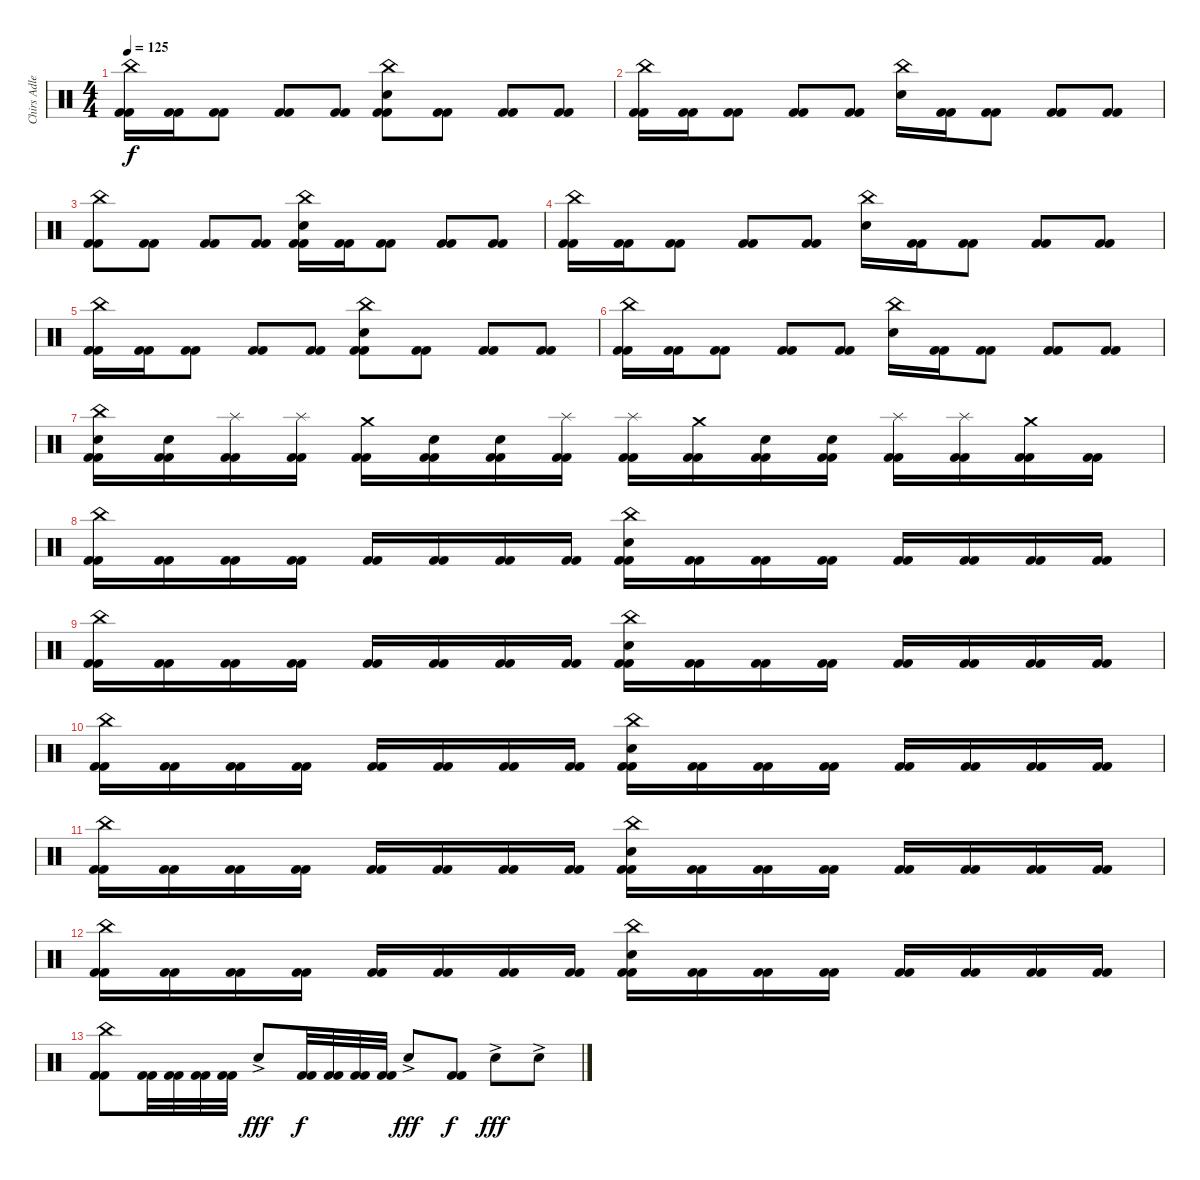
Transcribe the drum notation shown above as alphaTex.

\track ("Chirs Adler" "Chirs Adle") {instrument percussion}
\staff {score}
\articulation defaults
\ts (4 4)
\tempo 125
\clef neutral
\ks c
("China (hit)" "Kick (hit) 2" "Kick (hit) 2").16{dy f} ("Kick (hit) 2" "Kick (hit) 2").16 ("Kick (hit) 2" "Kick (hit) 2").8 ("Kick (hit) 2" "Kick (hit) 2").8 ("Kick (hit) 2" "Kick (hit) 2").8 ("China (hit)" "Electric Snare (hit)" "Kick (hit) 2" "Kick (hit) 2").8 ("Kick (hit) 2" "Kick (hit) 2").8 ("Kick (hit) 2" "Kick (hit) 2").8 ("Kick (hit) 2" "Kick (hit) 2").8 |
("China (hit)" "Kick (hit) 2" "Kick (hit) 2").16 ("Kick (hit) 2" "Kick (hit) 2").16 ("Kick (hit) 2" "Kick (hit) 2").8 ("Kick (hit) 2" "Kick (hit) 2").8 ("Kick (hit) 2" "Kick (hit) 2").8 ("China (hit)" "Electric Snare (hit)").16 ("Kick (hit) 2" "Kick (hit) 2").16 ("Kick (hit) 2" "Kick (hit) 2").8 ("Kick (hit) 2" "Kick (hit) 2").8 ("Kick (hit) 2" "Kick (hit) 2").8 |
("China (hit)" "Kick (hit) 2" "Kick (hit) 2").8 ("Kick (hit) 2" "Kick (hit) 2").8 ("Kick (hit) 2" "Kick (hit) 2").8 ("Kick (hit) 2" "Kick (hit) 2").8 ("China (hit)" "Electric Snare (hit)" "Kick (hit) 2" "Kick (hit) 2").16 ("Kick (hit) 2" "Kick (hit) 2").16 ("Kick (hit) 2" "Kick (hit) 2").8 ("Kick (hit) 2" "Kick (hit) 2").8 ("Kick (hit) 2" "Kick (hit) 2").8 |
("China (hit)" "Kick (hit) 2" "Kick (hit) 2").16 ("Kick (hit) 2" "Kick (hit) 2").16 ("Kick (hit) 2" "Kick (hit) 2").8 ("Kick (hit) 2" "Kick (hit) 2").8 ("Kick (hit) 2" "Kick (hit) 2").8 ("China (hit)" "Electric Snare (hit)").16 ("Kick (hit) 2" "Kick (hit) 2").16 ("Kick (hit) 2" "Kick (hit) 2").8 ("Kick (hit) 2" "Kick (hit) 2").8 ("Kick (hit) 2" "Kick (hit) 2").8 |
("China (hit)" "Kick (hit) 2" "Kick (hit) 2").16 ("Kick (hit) 2" "Kick (hit) 2").16 ("Kick (hit) 2" "Kick (hit) 2").8 ("Kick (hit) 2" "Kick (hit) 2").8 ("Kick (hit) 2" "Kick (hit) 2").8 ("China (hit)" "Electric Snare (hit)" "Kick (hit) 2" "Kick (hit) 2").8 ("Kick (hit) 2" "Kick (hit) 2").8 ("Kick (hit) 2" "Kick (hit) 2").8 ("Kick (hit) 2" "Kick (hit) 2").8 |
("China (hit)" "Kick (hit) 2" "Kick (hit) 2").16 ("Kick (hit) 2" "Kick (hit) 2").16 ("Kick (hit) 2" "Kick (hit) 2").8 ("Kick (hit) 2" "Kick (hit) 2").8 ("Kick (hit) 2" "Kick (hit) 2").8 ("China (hit)" "Electric Snare (hit)").16 ("Kick (hit) 2" "Kick (hit) 2").16 ("Kick (hit) 2" "Kick (hit) 2").8 ("Kick (hit) 2" "Kick (hit) 2").8 ("Kick (hit) 2" "Kick (hit) 2").8 |
("China (hit)" "Electric Snare (hit)" "Kick (hit) 2" "Kick (hit) 2").16 ("Electric Snare (hit)" "Kick (hit) 2" "Kick (hit) 2").16 ("Splash (hit)" "Kick (hit) 2" "Kick (hit) 2").16 ("Splash (hit)" "Kick (hit) 2" "Kick (hit) 2").16 ("Crash medium (hit)" "Kick (hit) 2" "Kick (hit) 2").16 ("Electric Snare (hit)" "Kick (hit) 2" "Kick (hit) 2").16 ("Electric Snare (hit)" "Kick (hit) 2" "Kick (hit) 2").16 ("Splash (hit)" "Kick (hit) 2" "Kick (hit) 2").16 ("Splash (hit)" "Kick (hit) 2" "Kick (hit) 2").16 ("Crash medium (hit)" "Kick (hit) 2" "Kick (hit) 2").16 ("Electric Snare (hit)" "Kick (hit) 2" "Kick (hit) 2").16 ("Electric Snare (hit)" "Kick (hit) 2" "Kick (hit) 2").16 ("Splash (hit)" "Kick (hit) 2" "Kick (hit) 2").16 ("Splash (hit)" "Kick (hit) 2" "Kick (hit) 2").16 ("Crash medium (hit)" "Kick (hit) 2" "Kick (hit) 2").16 ("Kick (hit) 2" "Kick (hit) 2").16 |
("China (hit)" "Kick (hit) 2" "Kick (hit) 2").16 ("Kick (hit) 2" "Kick (hit) 2").16 ("Kick (hit) 2" "Kick (hit) 2").16 ("Kick (hit) 2" "Kick (hit) 2").16 ("Kick (hit) 2" "Kick (hit) 2").16 ("Kick (hit) 2" "Kick (hit) 2").16 ("Kick (hit) 2" "Kick (hit) 2").16 ("Kick (hit) 2" "Kick (hit) 2").16 ("China (hit)" "Electric Snare (hit)" "Kick (hit) 2" "Kick (hit) 2").16 ("Kick (hit) 2" "Kick (hit) 2").16 ("Kick (hit) 2" "Kick (hit) 2").16 ("Kick (hit) 2" "Kick (hit) 2").16 ("Kick (hit) 2" "Kick (hit) 2").16 ("Kick (hit) 2" "Kick (hit) 2").16 ("Kick (hit) 2" "Kick (hit) 2").16 ("Kick (hit) 2" "Kick (hit) 2").16 |
("China (hit)" "Kick (hit) 2" "Kick (hit) 2").16 ("Kick (hit) 2" "Kick (hit) 2").16 ("Kick (hit) 2" "Kick (hit) 2").16 ("Kick (hit) 2" "Kick (hit) 2").16 ("Kick (hit) 2" "Kick (hit) 2").16 ("Kick (hit) 2" "Kick (hit) 2").16 ("Kick (hit) 2" "Kick (hit) 2").16 ("Kick (hit) 2" "Kick (hit) 2").16 ("China (hit)" "Electric Snare (hit)" "Kick (hit) 2" "Kick (hit) 2").16 ("Kick (hit) 2" "Kick (hit) 2").16 ("Kick (hit) 2" "Kick (hit) 2").16 ("Kick (hit) 2" "Kick (hit) 2").16 ("Kick (hit) 2" "Kick (hit) 2").16 ("Kick (hit) 2" "Kick (hit) 2").16 ("Kick (hit) 2" "Kick (hit) 2").16 ("Kick (hit) 2" "Kick (hit) 2").16 |
("China (hit)" "Kick (hit) 2" "Kick (hit) 2").16 ("Kick (hit) 2" "Kick (hit) 2").16 ("Kick (hit) 2" "Kick (hit) 2").16 ("Kick (hit) 2" "Kick (hit) 2").16 ("Kick (hit) 2" "Kick (hit) 2").16 ("Kick (hit) 2" "Kick (hit) 2").16 ("Kick (hit) 2" "Kick (hit) 2").16 ("Kick (hit) 2" "Kick (hit) 2").16 ("China (hit)" "Electric Snare (hit)" "Kick (hit) 2" "Kick (hit) 2").16 ("Kick (hit) 2" "Kick (hit) 2").16 ("Kick (hit) 2" "Kick (hit) 2").16 ("Kick (hit) 2" "Kick (hit) 2").16 ("Kick (hit) 2" "Kick (hit) 2").16 ("Kick (hit) 2" "Kick (hit) 2").16 ("Kick (hit) 2" "Kick (hit) 2").16 ("Kick (hit) 2" "Kick (hit) 2").16 |
("China (hit)" "Kick (hit) 2" "Kick (hit) 2").16 ("Kick (hit) 2" "Kick (hit) 2").16 ("Kick (hit) 2" "Kick (hit) 2").16 ("Kick (hit) 2" "Kick (hit) 2").16 ("Kick (hit) 2" "Kick (hit) 2").16 ("Kick (hit) 2" "Kick (hit) 2").16 ("Kick (hit) 2" "Kick (hit) 2").16 ("Kick (hit) 2" "Kick (hit) 2").16 ("China (hit)" "Electric Snare (hit)" "Kick (hit) 2" "Kick (hit) 2").16 ("Kick (hit) 2" "Kick (hit) 2").16 ("Kick (hit) 2" "Kick (hit) 2").16 ("Kick (hit) 2" "Kick (hit) 2").16 ("Kick (hit) 2" "Kick (hit) 2").16 ("Kick (hit) 2" "Kick (hit) 2").16 ("Kick (hit) 2" "Kick (hit) 2").16 ("Kick (hit) 2" "Kick (hit) 2").16 |
("China (hit)" "Kick (hit) 2" "Kick (hit) 2").16 ("Kick (hit) 2" "Kick (hit) 2").16 ("Kick (hit) 2" "Kick (hit) 2").16 ("Kick (hit) 2" "Kick (hit) 2").16 ("Kick (hit) 2" "Kick (hit) 2").16 ("Kick (hit) 2" "Kick (hit) 2").16 ("Kick (hit) 2" "Kick (hit) 2").16 ("Kick (hit) 2" "Kick (hit) 2").16 ("China (hit)" "Electric Snare (hit)" "Kick (hit) 2" "Kick (hit) 2").16 ("Kick (hit) 2" "Kick (hit) 2").16 ("Kick (hit) 2" "Kick (hit) 2").16 ("Kick (hit) 2" "Kick (hit) 2").16 ("Kick (hit) 2" "Kick (hit) 2").16 ("Kick (hit) 2" "Kick (hit) 2").16 ("Kick (hit) 2" "Kick (hit) 2").16 ("Kick (hit) 2" "Kick (hit) 2").16 |
("China (hit)" "Kick (hit) 2" "Kick (hit) 2").8 ("Kick (hit) 2" "Kick (hit) 2").32 ("Kick (hit) 2" "Kick (hit) 2").32 ("Kick (hit) 2" "Kick (hit) 2").32 ("Kick (hit) 2" "Kick (hit) 2").32 "Electric Snare (hit)"{ac}.8{dy fff} ("Kick (hit) 2" "Kick (hit) 2").32{dy f} ("Kick (hit) 2" "Kick (hit) 2").32 ("Kick (hit) 2" "Kick (hit) 2").32 ("Kick (hit) 2" "Kick (hit) 2").32 "Electric Snare (hit)"{ac}.8{dy fff} ("Kick (hit) 2" "Kick (hit) 2").8{dy f} "Electric Snare (hit)"{ac}.8{dy fff} "Electric Snare (hit)"{ac}.8
